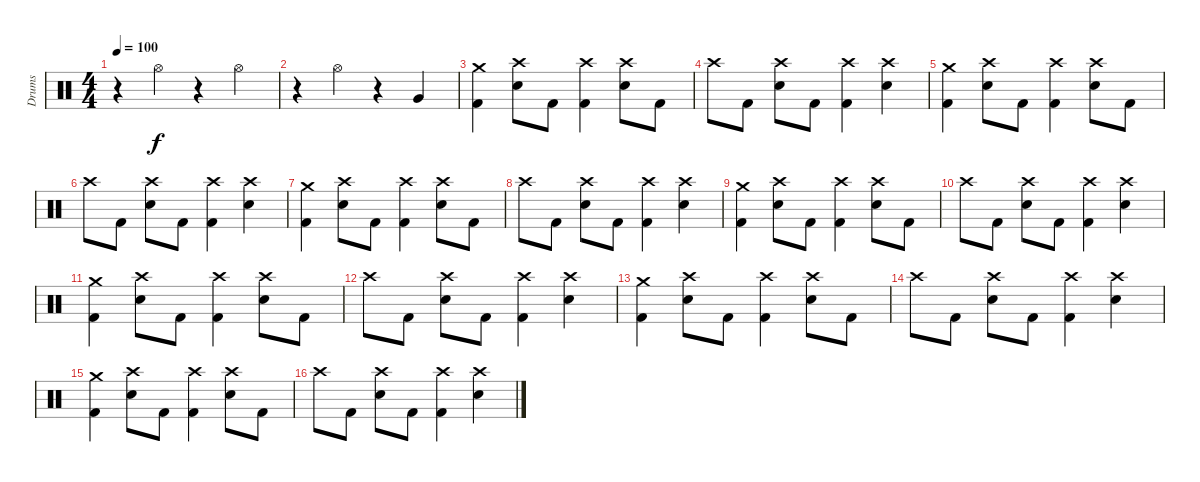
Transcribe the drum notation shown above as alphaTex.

\track ("Drums" "Drums") {instrument percussion}
\staff {score}
\articulation defaults
\ts (4 4)
\tempo 100
\clef neutral
\ks c
r.4{dy f} "Hi-Hat (open)".4 r.4 "Hi-Hat (open)".4 |
r.4 "Hi-Hat (open)".4 r.4 "Very Low Tom (hit)".4 |
("Kick (hit) 2" "Crash medium (hit)").4 ("Electric Snare (hit)" "Crash high (hit)").8 "Kick (hit) 2".8 ("Kick (hit) 2" "Crash high (hit)").4 ("Electric Snare (hit)" "Crash high (hit)").8 "Kick (hit) 2".8 |
"Crash high (hit)".8 "Kick (hit) 2".8 ("Electric Snare (hit)" "Crash high (hit)").8 "Kick (hit) 2".8 ("Kick (hit) 2" "Crash high (hit)").4 ("Electric Snare (hit)" "Crash high (hit)").4 |
("Kick (hit) 2" "Crash medium (hit)").4 ("Electric Snare (hit)" "Crash high (hit)").8 "Kick (hit) 2".8 ("Kick (hit) 2" "Crash high (hit)").4 ("Electric Snare (hit)" "Crash high (hit)").8 "Kick (hit) 2".8 |
"Crash high (hit)".8 "Kick (hit) 2".8 ("Electric Snare (hit)" "Crash high (hit)").8 "Kick (hit) 2".8 ("Kick (hit) 2" "Crash high (hit)").4 ("Electric Snare (hit)" "Crash high (hit)").4 |
("Kick (hit) 2" "Crash medium (hit)").4 ("Electric Snare (hit)" "Crash high (hit)").8 "Kick (hit) 2".8 ("Kick (hit) 2" "Crash high (hit)").4 ("Electric Snare (hit)" "Crash high (hit)").8 "Kick (hit) 2".8 |
"Crash high (hit)".8 "Kick (hit) 2".8 ("Electric Snare (hit)" "Crash high (hit)").8 "Kick (hit) 2".8 ("Kick (hit) 2" "Crash high (hit)").4 ("Electric Snare (hit)" "Crash high (hit)").4 |
("Kick (hit) 2" "Crash medium (hit)").4 ("Electric Snare (hit)" "Crash high (hit)").8 "Kick (hit) 2".8 ("Kick (hit) 2" "Crash high (hit)").4 ("Electric Snare (hit)" "Crash high (hit)").8 "Kick (hit) 2".8 |
"Crash high (hit)".8 "Kick (hit) 2".8 ("Electric Snare (hit)" "Crash high (hit)").8 "Kick (hit) 2".8 ("Kick (hit) 2" "Crash high (hit)").4 ("Electric Snare (hit)" "Crash high (hit)").4 |
("Kick (hit) 2" "Crash medium (hit)").4 ("Electric Snare (hit)" "Crash high (hit)").8 "Kick (hit) 2".8 ("Kick (hit) 2" "Crash high (hit)").4 ("Electric Snare (hit)" "Crash high (hit)").8 "Kick (hit) 2".8 |
"Crash high (hit)".8 "Kick (hit) 2".8 ("Electric Snare (hit)" "Crash high (hit)").8 "Kick (hit) 2".8 ("Kick (hit) 2" "Crash high (hit)").4 ("Electric Snare (hit)" "Crash high (hit)").4 |
("Kick (hit) 2" "Crash medium (hit)").4 ("Electric Snare (hit)" "Crash high (hit)").8 "Kick (hit) 2".8 ("Kick (hit) 2" "Crash high (hit)").4 ("Electric Snare (hit)" "Crash high (hit)").8 "Kick (hit) 2".8 |
"Crash high (hit)".8 "Kick (hit) 2".8 ("Electric Snare (hit)" "Crash high (hit)").8 "Kick (hit) 2".8 ("Kick (hit) 2" "Crash high (hit)").4 ("Electric Snare (hit)" "Crash high (hit)").4 |
("Kick (hit) 2" "Crash medium (hit)").4 ("Electric Snare (hit)" "Crash high (hit)").8 "Kick (hit) 2".8 ("Kick (hit) 2" "Crash high (hit)").4 ("Electric Snare (hit)" "Crash high (hit)").8 "Kick (hit) 2".8 |
"Crash high (hit)".8 "Kick (hit) 2".8 ("Electric Snare (hit)" "Crash high (hit)").8 "Kick (hit) 2".8 ("Kick (hit) 2" "Crash high (hit)").4 ("Electric Snare (hit)" "Crash high (hit)").4
